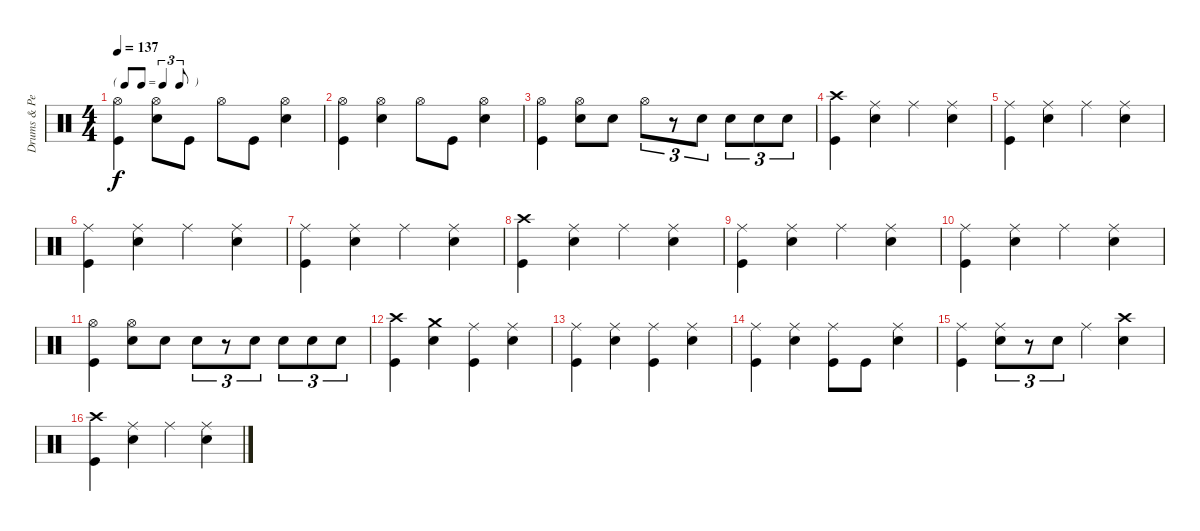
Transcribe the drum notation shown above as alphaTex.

\track ("Drums & Percussion (Matt)" "Drums & Pe") {instrument percussion}
\staff {score}
\articulation defaults
\ts (4 4)
\tf triplet8th
\tempo 137
\clef neutral
\ks c
("Hi-Hat (open)" "Kick (hit)").4{dy f} ("Hi-Hat (open)" "Electric Snare (hit)").8 "Kick (hit)".8 "Hi-Hat (open)".8 "Kick (hit)".8 ("Hi-Hat (open)" "Electric Snare (hit)").4 |
("Hi-Hat (open)" "Kick (hit)").4 ("Hi-Hat (open)" "Electric Snare (hit)").4 "Hi-Hat (open)".8 "Kick (hit)".8 ("Hi-Hat (open)" "Electric Snare (hit)").4 |
("Hi-Hat (open)" "Kick (hit)").4 ("Hi-Hat (open)" "Electric Snare (hit)").8 "Electric Snare (hit)".8 "Hi-Hat (open)".8{tu (3 2)} r.8{tu (3 2)} "Electric Snare (hit)".8{tu (3 2)} "Electric Snare (hit)".8{tu (3 2)} "Electric Snare (hit)".8{tu (3 2)} "Electric Snare (hit)".8{tu (3 2)} |
("Crash high (hit)" "Kick (hit)").4 ("Ride (middle)" "Electric Snare (hit)").4 "Ride (middle)".4 ("Ride (middle)" "Electric Snare (hit)").4 |
("Ride (middle)" "Kick (hit)").4 ("Ride (middle)" "Electric Snare (hit)").4 "Ride (middle)".4 ("Ride (middle)" "Electric Snare (hit)").4 |
("Ride (middle)" "Kick (hit)").4 ("Ride (middle)" "Electric Snare (hit)").4 "Ride (middle)".4 ("Ride (middle)" "Electric Snare (hit)").4 |
("Ride (middle)" "Kick (hit)").4 ("Ride (middle)" "Electric Snare (hit)").4 "Ride (middle)".4 ("Ride (middle)" "Electric Snare (hit)").4 |
("Crash high (hit)" "Kick (hit)").4 ("Ride (middle)" "Electric Snare (hit)").4 "Ride (middle)".4 ("Ride (middle)" "Electric Snare (hit)").4 |
("Ride (middle)" "Kick (hit)").4 ("Ride (middle)" "Electric Snare (hit)").4 "Ride (middle)".4 ("Ride (middle)" "Electric Snare (hit)").4 |
("Ride (middle)" "Kick (hit)").4 ("Ride (middle)" "Electric Snare (hit)").4 "Ride (middle)".4 ("Ride (middle)" "Electric Snare (hit)").4 |
("Hi-Hat (open)" "Kick (hit)").4 ("Hi-Hat (open)" "Electric Snare (hit)").8 "Electric Snare (hit)".8 "Electric Snare (hit)".8{tu (3 2)} r.8{tu (3 2)} "Electric Snare (hit)".8{tu (3 2)} "Electric Snare (hit)".8{tu (3 2)} "Electric Snare (hit)".8{tu (3 2)} "Electric Snare (hit)".8{tu (3 2)} |
("Crash high (hit)" "Kick (hit)").4 ("Crash medium (hit)" "Electric Snare (hit)").4 ("Ride (middle)" "Kick (hit)").4 ("Ride (middle)" "Electric Snare (hit)").4 |
("Ride (middle)" "Kick (hit)").4 ("Ride (middle)" "Electric Snare (hit)").4 ("Ride (middle)" "Kick (hit)").4 ("Ride (middle)" "Electric Snare (hit)").4 |
("Ride (middle)" "Kick (hit)").4 ("Ride (middle)" "Electric Snare (hit)").4 ("Ride (middle)" "Kick (hit)").8 "Kick (hit)".8 ("Ride (middle)" "Electric Snare (hit)").4 |
("Ride (middle)" "Kick (hit)").4 ("Ride (middle)" "Electric Snare (hit)").8{tu (3 2)} r.8{tu (3 2)} "Electric Snare (hit)".8{tu (3 2)} "Ride (middle)".4 ("Crash high (hit)" "Electric Snare (hit)").4 |
("Crash high (hit)" "Kick (hit)").4 ("Ride (middle)" "Electric Snare (hit)").4 "Ride (middle)".4 ("Ride (middle)" "Electric Snare (hit)").4
